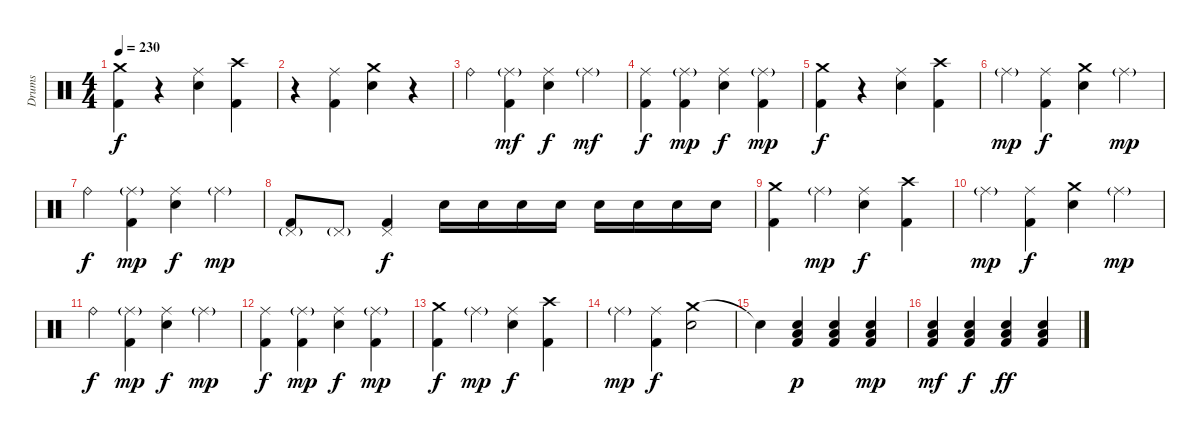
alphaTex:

\track ("Drums" "Drums") {instrument percussion}
\staff {score}
\articulation defaults
\ts (4 4)
\tempo 230
\clef neutral
\ks c
("Crash medium (hit)" "Kick (hit) 2").4{dy f} r.4 ("Ride (middle)" "Electric Snare (hit)").4 ("Crash high (hit)" "Kick (hit) 2").4 |
r.4 ("Ride (middle)" "Kick (hit) 2").4 ("Crash medium (hit)" "Electric Snare (hit)").4 r.4 |
"Ride (bell)".4 ("Ride (middle)"{g} "Kick (hit) 2").4{dy mf} ("Ride (middle)" "Electric Snare (hit)").4{dy f} "Ride (middle)"{g}.4{dy mf} |
("Ride (middle)" "Kick (hit) 2").4{dy f} ("Ride (middle)"{g} "Kick (hit) 2").4{dy mp} ("Ride (middle)" "Electric Snare (hit)").4{dy f} ("Ride (middle)"{g} "Kick (hit) 2").4{dy mp} |
("Crash medium (hit)" "Kick (hit) 2").4{dy f} r.4 ("Ride (middle)" "Electric Snare (hit)").4 ("Crash high (hit)" "Kick (hit) 2").4 |
"Ride (middle)"{g}.4{dy mp} ("Ride (middle)" "Kick (hit) 2").4{dy f} ("Crash medium (hit)" "Electric Snare (hit)").4 "Ride (middle)"{g}.4{dy mp} |
"Ride (bell)".4{dy f} ("Ride (middle)"{g} "Kick (hit) 2").4{dy mp} ("Ride (middle)" "Electric Snare (hit)").4{dy f} "Ride (middle)"{g}.4{dy mp} |
("Pedal Hi-Hat (hit)"{g} "Kick (hit) 2").8 "Pedal Hi-Hat (hit)"{g}.8 ("Pedal Hi-Hat (hit)" "Kick (hit) 2").4{dy f} "Electric Snare (hit)".16 "Electric Snare (hit)".16 "Electric Snare (hit)".16 "Electric Snare (hit)".16 "Electric Snare (hit)".16 "Electric Snare (hit)".16 "Electric Snare (hit)".16 "Electric Snare (hit)".16 |
("Crash medium (hit)" "Kick (hit) 2").4 "Ride (middle)"{g}.4{dy mp} ("Ride (middle)" "Electric Snare (hit)").4{dy f} ("Crash high (hit)" "Kick (hit) 2").4 |
"Ride (middle)"{g}.4{dy mp} ("Ride (middle)" "Kick (hit) 2").4{dy f} ("Crash medium (hit)" "Electric Snare (hit)").4 "Ride (middle)"{g}.4{dy mp} |
"Ride (bell)".4{dy f} ("Ride (middle)"{g} "Kick (hit) 2").4{dy mp} ("Ride (middle)" "Electric Snare (hit)").4{dy f} "Ride (middle)"{g}.4{dy mp} |
("Ride (middle)" "Kick (hit) 2").4{dy f} ("Ride (middle)"{g} "Kick (hit) 2").4{dy mp} ("Ride (middle)" "Electric Snare (hit)").4{dy f} ("Ride (middle)"{g} "Kick (hit) 2").4{dy mp} |
("Crash medium (hit)" "Kick (hit) 2").4{dy f} "Ride (middle)"{g}.4{dy mp} ("Ride (middle)" "Electric Snare (hit)").4{dy f} ("Crash high (hit)" "Kick (hit) 2").4 |
"Ride (middle)"{g}.4{dy mp} ("Ride (middle)" "Kick (hit) 2").4{dy f} ("Crash medium (hit)" "Electric Snare (hit)").2 |
"Snare (hit)"{t}.4 ("Low Floor Tom (hit)" "Electric Snare (hit)" "Kick (hit) 2").4{dy p} ("Low Floor Tom (hit)" "Electric Snare (hit)" "Kick (hit) 2").4 ("Low Floor Tom (hit)" "Electric Snare (hit)" "Kick (hit) 2").4{dy mp} |
("Low Floor Tom (hit)" "Electric Snare (hit)" "Kick (hit) 2").4{dy mf} ("Low Floor Tom (hit)" "Electric Snare (hit)" "Kick (hit) 2").4{dy f} ("Low Floor Tom (hit)" "Electric Snare (hit)" "Kick (hit) 2").4{dy ff} ("Low Floor Tom (hit)" "Electric Snare (hit)" "Kick (hit) 2").4
